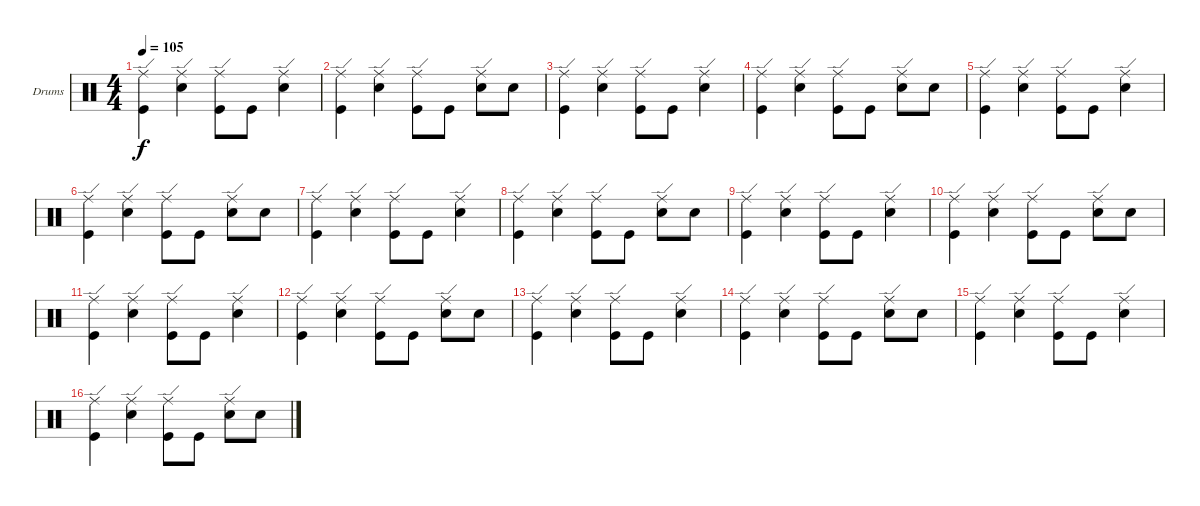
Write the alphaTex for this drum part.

\defaultSystemsLayout 4
\bracketExtendMode groupsimilarinstruments
\firstSystemTrackNameOrientation horizontal
\otherSystemsTrackNameOrientation horizontal
\track ("Drumkit" "Drums") {instrument percussion}
\staff {score}
\articulation defaults
\ts (4 4)
\tempo 105
\clef neutral
\ks c
("Ride (edge)" "Kick (hit)").4{dy f} ("Ride (edge)" "Snare (hit) 2").4 ("Ride (edge)" "Kick (hit)").8 "Kick (hit)".8 ("Ride (edge)" "Snare (hit) 2").4 |
("Ride (edge)" "Kick (hit)").4 ("Ride (edge)" "Snare (hit) 2").4 ("Ride (edge)" "Kick (hit)").8 "Kick (hit)".8 ("Ride (edge)" "Snare (hit) 2").8 "Snare (hit) 2".8 |
("Ride (edge)" "Kick (hit)").4 ("Ride (edge)" "Snare (hit) 2").4 ("Ride (edge)" "Kick (hit)").8 "Kick (hit)".8 ("Ride (edge)" "Snare (hit) 2").4 |
("Ride (edge)" "Kick (hit)").4 ("Ride (edge)" "Snare (hit) 2").4 ("Ride (edge)" "Kick (hit)").8 "Kick (hit)".8 ("Ride (edge)" "Snare (hit) 2").8 "Snare (hit) 2".8 |
("Ride (edge)" "Kick (hit)").4 ("Ride (edge)" "Snare (hit) 2").4 ("Ride (edge)" "Kick (hit)").8 "Kick (hit)".8 ("Ride (edge)" "Snare (hit) 2").4 |
("Ride (edge)" "Kick (hit)").4 ("Ride (edge)" "Snare (hit) 2").4 ("Ride (edge)" "Kick (hit)").8 "Kick (hit)".8 ("Ride (edge)" "Snare (hit) 2").8 "Snare (hit) 2".8 |
("Ride (edge)" "Kick (hit)").4 ("Ride (edge)" "Snare (hit) 2").4 ("Ride (edge)" "Kick (hit)").8 "Kick (hit)".8 ("Ride (edge)" "Snare (hit) 2").4 |
("Ride (edge)" "Kick (hit)").4 ("Ride (edge)" "Snare (hit) 2").4 ("Ride (edge)" "Kick (hit)").8 "Kick (hit)".8 ("Ride (edge)" "Snare (hit) 2").8 "Snare (hit) 2".8 |
("Ride (edge)" "Kick (hit)").4 ("Ride (edge)" "Snare (hit) 2").4 ("Ride (edge)" "Kick (hit)").8 "Kick (hit)".8 ("Ride (edge)" "Snare (hit) 2").4 |
("Ride (edge)" "Kick (hit)").4 ("Ride (edge)" "Snare (hit) 2").4 ("Ride (edge)" "Kick (hit)").8 "Kick (hit)".8 ("Ride (edge)" "Snare (hit) 2").8 "Snare (hit) 2".8 |
("Ride (edge)" "Kick (hit)").4 ("Ride (edge)" "Snare (hit) 2").4 ("Ride (edge)" "Kick (hit)").8 "Kick (hit)".8 ("Ride (edge)" "Snare (hit) 2").4 |
("Ride (edge)" "Kick (hit)").4 ("Ride (edge)" "Snare (hit) 2").4 ("Ride (edge)" "Kick (hit)").8 "Kick (hit)".8 ("Ride (edge)" "Snare (hit) 2").8 "Snare (hit) 2".8 |
("Ride (edge)" "Kick (hit)").4 ("Ride (edge)" "Snare (hit) 2").4 ("Ride (edge)" "Kick (hit)").8 "Kick (hit)".8 ("Ride (edge)" "Snare (hit) 2").4 |
("Ride (edge)" "Kick (hit)").4 ("Ride (edge)" "Snare (hit) 2").4 ("Ride (edge)" "Kick (hit)").8 "Kick (hit)".8 ("Ride (edge)" "Snare (hit) 2").8 "Snare (hit) 2".8 |
("Ride (edge)" "Kick (hit)").4 ("Ride (edge)" "Snare (hit) 2").4 ("Ride (edge)" "Kick (hit)").8 "Kick (hit)".8 ("Ride (edge)" "Snare (hit) 2").4 |
("Ride (edge)" "Kick (hit)").4 ("Ride (edge)" "Snare (hit) 2").4 ("Ride (edge)" "Kick (hit)").8 "Kick (hit)".8 ("Ride (edge)" "Snare (hit) 2").8 "Snare (hit) 2".8
